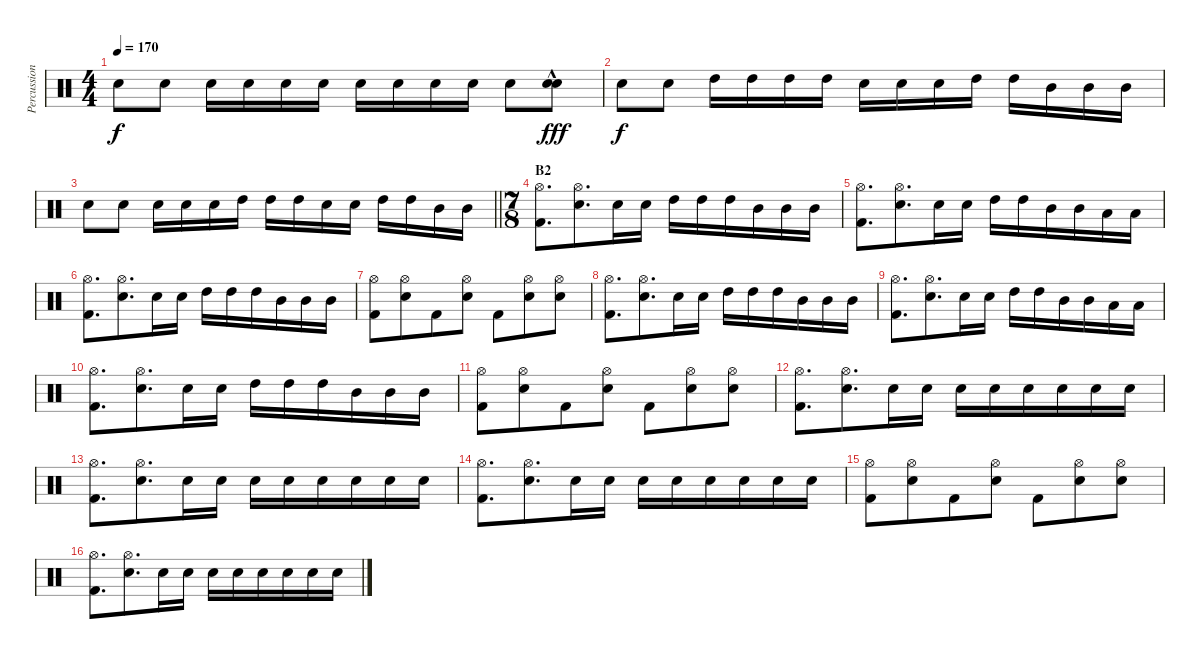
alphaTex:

\track ("Percussion" "Percussion") {instrument percussion}
\staff {score}
\articulation defaults
\ts (4 4)
\tempo 170
\clef neutral
\ks c "Electric Snare (hit)".8{dy f} "Electric Snare (hit)".8 "Electric Snare (hit)".16 "Electric Snare (hit)".16 "Electric Snare (hit)".16 "Electric Snare (hit)".16 "Electric Snare (hit)".16 "Electric Snare (hit)".16 "Electric Snare (hit)".16 "Electric Snare (hit)".16 "Electric Snare (hit)".8
("Electric Snare (hit)"{hac} "Electric Snare (hit)"{hac}).8{dy fff} |
"Electric Snare (hit)".8{dy f} "Electric Snare (hit)".8 "High Tom (hit)".16 "High Tom (hit)".16 "High Tom (hit)".16 "High Tom (hit)".16 "Electric Snare (hit)".16 "Electric Snare (hit)".16 "Electric Snare (hit)".16 "High Tom (hit)".16 "High Tom (hit)".16 "Mid Tom (hit)".16 "Mid Tom (hit)".16 "Mid Tom (hit)".16 |
\barLineRight lightlight "Electric Snare (hit)".8 "Electric Snare (hit)".8 "Electric Snare (hit)".16 "Electric Snare (hit)".16 "Electric Snare (hit)".16 "High Tom (hit)".16 "High Tom (hit)".16 "High Tom (hit)".16 "Electric Snare (hit)".16 "Electric Snare (hit)".16 "High Tom (hit)".16 "High Tom (hit)".16 "Mid Tom (hit)".16 "Mid Tom (hit)".16
|
\ts (7 8)
\section ("" "B2")
("Hi-Hat (open)" "Kick (hit) 2").8{d} ("Hi-Hat (open)" "Electric Snare (hit)").8{d} "Electric Snare (hit)".16 "Electric Snare (hit)".16 "High Tom (hit)".16 "High Tom (hit)".16 "High Tom (hit)".16 "Mid Tom (hit)".16 "Mid Tom (hit)".16 "Mid Tom (hit)".16 |
("Hi-Hat (open)" "Kick (hit) 2").8{d} ("Hi-Hat (open)" "Electric Snare (hit)").8{d} "Electric Snare (hit)".16 "Electric Snare (hit)".16 "High Tom (hit)".16 "High Tom (hit)".16 "Mid Tom (hit)".16 "Mid Tom (hit)".16 "Low Tom (hit)".16 "Low Tom (hit)".16 |
("Hi-Hat (open)" "Kick (hit) 2").8{d} ("Hi-Hat (open)" "Electric Snare (hit)").8{d} "Electric Snare (hit)".16 "Electric Snare (hit)".16 "High Tom (hit)".16 "High Tom (hit)".16 "High Tom (hit)".16 "Mid Tom (hit)".16 "Mid Tom (hit)".16 "Mid Tom (hit)".16 |
("Hi-Hat (open)" "Kick (hit) 2").8 ("Hi-Hat (open)" "Electric Snare (hit)").8 "Kick (hit) 2".8 ("Hi-Hat (open)" "Electric Snare (hit)").8 "Kick (hit) 2".8 ("Hi-Hat (open)" "Electric Snare (hit)").8 ("Hi-Hat (open)" "Electric Snare (hit)").8 |
("Hi-Hat (open)" "Kick (hit) 2").8{d} ("Hi-Hat (open)" "Electric Snare (hit)").8{d} "Electric Snare (hit)".16 "Electric Snare (hit)".16 "High Tom (hit)".16 "High Tom (hit)".16 "High Tom (hit)".16 "Mid Tom (hit)".16 "Mid Tom (hit)".16 "Mid Tom (hit)".16 |
("Hi-Hat (open)" "Kick (hit) 2").8{d} ("Hi-Hat (open)" "Electric Snare (hit)").8{d} "Electric Snare (hit)".16 "Electric Snare (hit)".16 "High Tom (hit)".16 "High Tom (hit)".16 "Mid Tom (hit)".16 "Mid Tom (hit)".16 "Low Tom (hit)".16 "Low Tom (hit)".16 |
("Hi-Hat (open)" "Kick (hit) 2").8{d} ("Hi-Hat (open)" "Electric Snare (hit)").8{d} "Electric Snare (hit)".16 "Electric Snare (hit)".16 "High Tom (hit)".16 "High Tom (hit)".16 "High Tom (hit)".16 "Mid Tom (hit)".16 "Mid Tom (hit)".16 "Mid Tom (hit)".16 |
("Hi-Hat (open)" "Kick (hit) 2").8 ("Hi-Hat (open)" "Electric Snare (hit)").8 "Kick (hit) 2".8 ("Hi-Hat (open)" "Electric Snare (hit)").8 "Kick (hit) 2".8 ("Hi-Hat (open)" "Electric Snare (hit)").8 ("Hi-Hat (open)" "Electric Snare (hit)").8 |
("Hi-Hat (open)" "Kick (hit) 2").8{d} ("Hi-Hat (open)" "Electric Snare (hit)").8{d} "Electric Snare (hit)".16 "Electric Snare (hit)".16 "Electric Snare (hit)".16 "Electric Snare (hit)".16 "Electric Snare (hit)".16 "Electric Snare (hit)".16 "Electric Snare (hit)".16 "Electric Snare (hit)".16 |
("Hi-Hat (open)" "Kick (hit) 2").8{d} ("Hi-Hat (open)" "Electric Snare (hit)").8{d} "Electric Snare (hit)".16 "Electric Snare (hit)".16 "Electric Snare (hit)".16 "Electric Snare (hit)".16 "Electric Snare (hit)".16 "Electric Snare (hit)".16 "Electric Snare (hit)".16 "Electric Snare (hit)".16 |
("Hi-Hat (open)" "Kick (hit) 2").8{d} ("Hi-Hat (open)" "Electric Snare (hit)").8{d} "Electric Snare (hit)".16 "Electric Snare (hit)".16 "Electric Snare (hit)".16 "Electric Snare (hit)".16 "Electric Snare (hit)".16 "Electric Snare (hit)".16 "Electric Snare (hit)".16 "Electric Snare (hit)".16 |
("Hi-Hat (open)" "Kick (hit) 2").8 ("Hi-Hat (open)" "Electric Snare (hit)").8 "Kick (hit) 2".8 ("Hi-Hat (open)" "Electric Snare (hit)").8 "Kick (hit) 2".8 ("Hi-Hat (open)" "Electric Snare (hit)").8 ("Hi-Hat (open)" "Electric Snare (hit)").8 |
("Hi-Hat (open)" "Kick (hit) 2").8{d} ("Hi-Hat (open)" "Electric Snare (hit)").8{d} "Electric Snare (hit)".16 "Electric Snare (hit)".16 "Electric Snare (hit)".16 "Electric Snare (hit)".16 "Electric Snare (hit)".16 "Electric Snare (hit)".16 "Electric Snare (hit)".16 "Electric Snare (hit)".16
